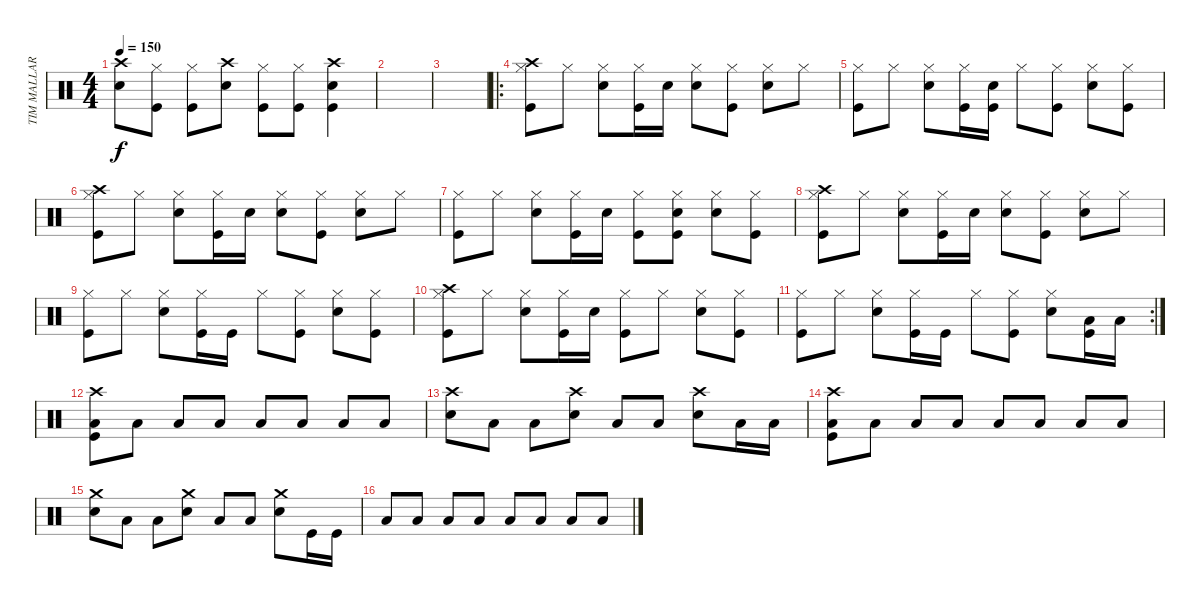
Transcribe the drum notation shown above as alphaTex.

\track ("TIM MALLARE - drums" "TIM MALLAR") {instrument percussion}
\staff {score}
\articulation defaults
\ts (4 4)
\tempo 150
\clef neutral
\ks c
("Crash high (hit)" "Electric Snare (hit)").8{dy f} ("Hi-Hat (closed)" "Kick (hit)").8 ("Hi-Hat (closed)" "Kick (hit)").8 ("Crash high (hit)" "Electric Snare (hit)").8 ("Hi-Hat (closed)" "Kick (hit)").8 ("Hi-Hat (closed)" "Kick (hit)").8 ("Crash high (hit)" "Electric Snare (hit)" "Kick (hit)").4 |
|
|
\ro
("Crash high (hit)" "Hi-Hat (closed)" "Kick (hit)").8 "Hi-Hat (closed)".8 ("Hi-Hat (closed)" "Electric Snare (hit)").8 ("Hi-Hat (closed)" "Kick (hit)").16 "Electric Snare (hit)".16 ("Hi-Hat (closed)" "Electric Snare (hit)").8 ("Hi-Hat (closed)" "Kick (hit)").8 ("Hi-Hat (closed)" "Electric Snare (hit)").8 "Hi-Hat (closed)".8 |
("Hi-Hat (closed)" "Kick (hit)").8 "Hi-Hat (closed)".8 ("Hi-Hat (closed)" "Electric Snare (hit)").8 ("Hi-Hat (closed)" "Kick (hit)").16 ("Electric Snare (hit)" "Kick (hit)").16 "Hi-Hat (closed)".8 ("Hi-Hat (closed)" "Kick (hit)").8 ("Hi-Hat (closed)" "Electric Snare (hit)").8 ("Hi-Hat (closed)" "Kick (hit)").8 |
("Crash high (hit)" "Hi-Hat (closed)" "Kick (hit)").8 "Hi-Hat (closed)".8 ("Hi-Hat (closed)" "Electric Snare (hit)").8 ("Hi-Hat (closed)" "Kick (hit)").16 "Electric Snare (hit)".16 ("Hi-Hat (closed)" "Electric Snare (hit)").8 ("Hi-Hat (closed)" "Kick (hit)").8 ("Hi-Hat (closed)" "Electric Snare (hit)").8 "Hi-Hat (closed)".8 |
("Hi-Hat (closed)" "Kick (hit)").8 "Hi-Hat (closed)".8 ("Hi-Hat (closed)" "Electric Snare (hit)").8 ("Hi-Hat (closed)" "Kick (hit)").16 "Electric Snare (hit)".16 ("Hi-Hat (closed)" "Kick (hit)").8 ("Hi-Hat (closed)" "Electric Snare (hit)" "Kick (hit)").8 ("Hi-Hat (closed)" "Electric Snare (hit)").8 ("Hi-Hat (closed)" "Kick (hit)").8 |
("Crash high (hit)" "Hi-Hat (closed)" "Kick (hit)").8 "Hi-Hat (closed)".8 ("Hi-Hat (closed)" "Electric Snare (hit)").8 ("Hi-Hat (closed)" "Kick (hit)").16 "Electric Snare (hit)".16 ("Hi-Hat (closed)" "Electric Snare (hit)").8 ("Hi-Hat (closed)" "Kick (hit)").8 ("Hi-Hat (closed)" "Electric Snare (hit)").8 "Hi-Hat (closed)".8 |
("Hi-Hat (closed)" "Kick (hit)").8 "Hi-Hat (closed)".8 ("Hi-Hat (closed)" "Electric Snare (hit)").8 ("Hi-Hat (closed)" "Kick (hit)").16 "Kick (hit)".16 "Hi-Hat (closed)".8 ("Hi-Hat (closed)" "Kick (hit)").8 ("Hi-Hat (closed)" "Electric Snare (hit)").8 ("Hi-Hat (closed)" "Kick (hit)").8 |
("Crash high (hit)" "Hi-Hat (closed)" "Kick (hit)").8 "Hi-Hat (closed)".8 ("Hi-Hat (closed)" "Electric Snare (hit)").8 ("Hi-Hat (closed)" "Kick (hit)").16 "Electric Snare (hit)".16 ("Hi-Hat (closed)" "Kick (hit)").8 "Hi-Hat (closed)".8 ("Hi-Hat (closed)" "Electric Snare (hit)").8 ("Hi-Hat (closed)" "Kick (hit)").8 |
\rc 2
("Hi-Hat (closed)" "Kick (hit)").8 "Hi-Hat (closed)".8 ("Hi-Hat (closed)" "Electric Snare (hit)").8 ("Hi-Hat (closed)" "Kick (hit)").16 "Kick (hit)".16 "Hi-Hat (closed)".8 ("Hi-Hat (closed)" "Kick (hit)").8 ("Hi-Hat (closed)" "Electric Snare (hit)").8 ("Low Tom (hit)" "Kick (hit)").16 "Low Tom (hit)".16 |
("Crash high (hit)" "Low Tom (hit)" "Kick (hit)").8 "Low Tom (hit)".8 "Low Tom (hit)".8 "Low Tom (hit)".8 "Low Tom (hit)".8 "Low Tom (hit)".8 "Low Tom (hit)".8 "Low Tom (hit)".8 |
("Crash high (hit)" "Electric Snare (hit)").8 "Low Tom (hit)".8 "Low Tom (hit)".8 ("Crash high (hit)" "Electric Snare (hit)").8 "Low Tom (hit)".8 "Low Tom (hit)".8 ("Crash high (hit)" "Electric Snare (hit)").8 "Low Tom (hit)".16 "Low Tom (hit)".16 |
("Crash high (hit)" "Low Tom (hit)" "Kick (hit)").8 "Low Tom (hit)".8 "Low Tom (hit)".8 "Low Tom (hit)".8 "Low Tom (hit)".8 "Low Tom (hit)".8 "Low Tom (hit)".8 "Low Tom (hit)".8 |
("Crash medium (hit)" "Electric Snare (hit)").8 "Low Tom (hit)".8 "Low Tom (hit)".8 ("Crash medium (hit)" "Electric Snare (hit)").8 "Low Tom (hit)".8 "Low Tom (hit)".8 ("Crash medium (hit)" "Electric Snare (hit)").8 "Kick (hit)".16 "Kick (hit)".16 |
"Low Tom (hit)".8 "Low Tom (hit)".8 "Low Tom (hit)".8 "Low Tom (hit)".8 "Low Tom (hit)".8 "Low Tom (hit)".8 "Low Tom (hit)".8 "Low Tom (hit)".8
